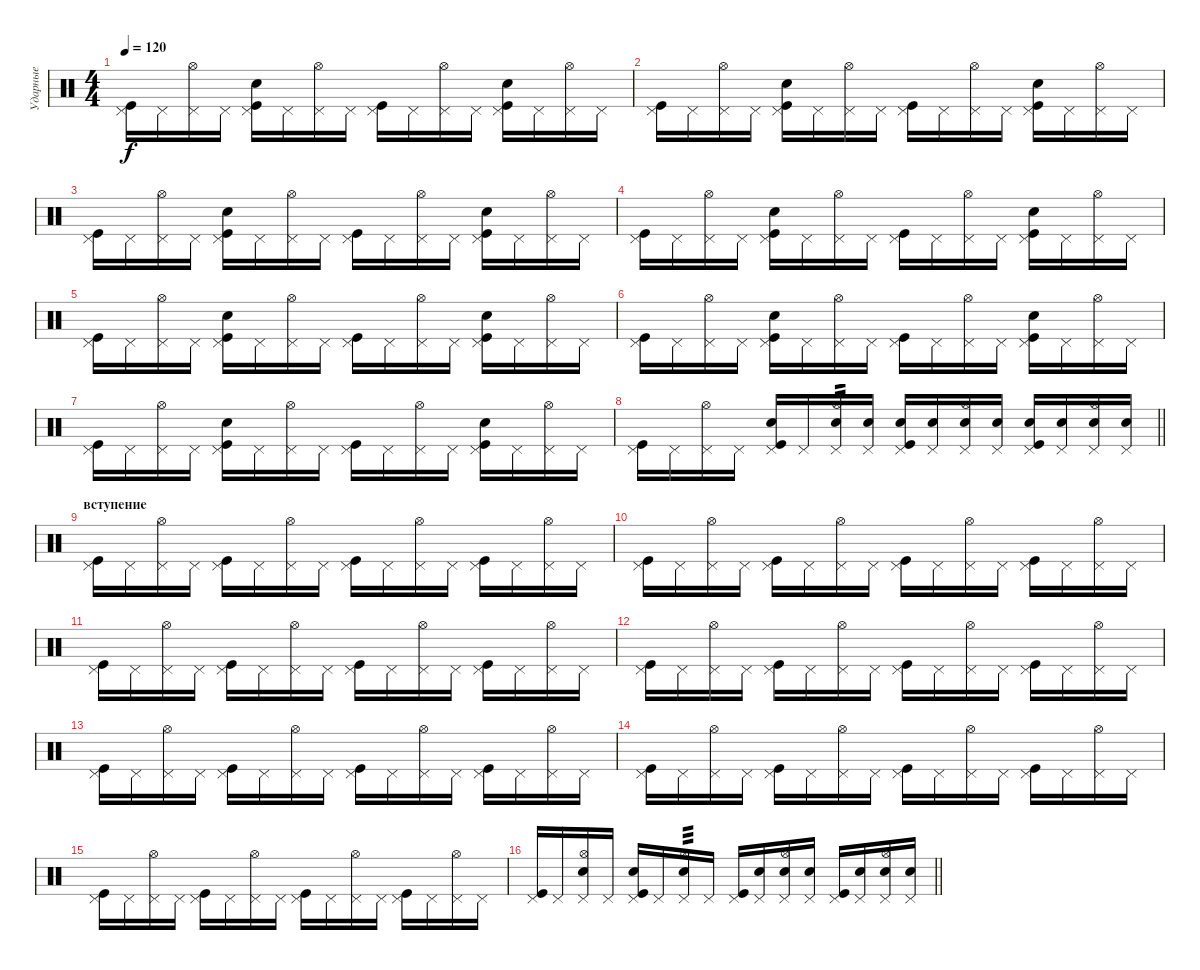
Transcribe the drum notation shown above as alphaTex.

\track ("Ударные" "Ударные") {instrument percussion}
\staff {score}
\articulation defaults
\ts (4 4)
\tempo 120
\clef neutral
\ks c
("Pedal Hi-Hat (hit)" "Kick (hit)").16{dy f} "Pedal Hi-Hat (hit)".16 ("Pedal Hi-Hat (hit)" "Hi-Hat (open)").16 "Pedal Hi-Hat (hit)".16 ("Pedal Hi-Hat (hit)" "Kick (hit)" "Snare (hit) 2").16 "Pedal Hi-Hat (hit)".16 ("Pedal Hi-Hat (hit)" "Hi-Hat (open)").16 "Pedal Hi-Hat (hit)".16 ("Pedal Hi-Hat (hit)" "Kick (hit)").16 "Pedal Hi-Hat (hit)".16 ("Pedal Hi-Hat (hit)" "Hi-Hat (open)").16 "Pedal Hi-Hat (hit)".16 ("Pedal Hi-Hat (hit)" "Kick (hit)" "Snare (hit) 2").16 "Pedal Hi-Hat (hit)".16 ("Pedal Hi-Hat (hit)" "Hi-Hat (open)").16 "Pedal Hi-Hat (hit)".16 |
("Pedal Hi-Hat (hit)" "Kick (hit)").16 "Pedal Hi-Hat (hit)".16 ("Pedal Hi-Hat (hit)" "Hi-Hat (open)").16 "Pedal Hi-Hat (hit)".16 ("Pedal Hi-Hat (hit)" "Kick (hit)" "Snare (hit) 2").16 "Pedal Hi-Hat (hit)".16 ("Pedal Hi-Hat (hit)" "Hi-Hat (open)").16 "Pedal Hi-Hat (hit)".16 ("Pedal Hi-Hat (hit)" "Kick (hit)").16 "Pedal Hi-Hat (hit)".16 ("Pedal Hi-Hat (hit)" "Hi-Hat (open)").16 "Pedal Hi-Hat (hit)".16 ("Pedal Hi-Hat (hit)" "Kick (hit)" "Snare (hit) 2").16 "Pedal Hi-Hat (hit)".16 ("Pedal Hi-Hat (hit)" "Hi-Hat (open)").16 "Pedal Hi-Hat (hit)".16 |
("Pedal Hi-Hat (hit)" "Kick (hit)").16 "Pedal Hi-Hat (hit)".16 ("Pedal Hi-Hat (hit)" "Hi-Hat (open)").16 "Pedal Hi-Hat (hit)".16 ("Pedal Hi-Hat (hit)" "Kick (hit)" "Snare (hit) 2").16 "Pedal Hi-Hat (hit)".16 ("Pedal Hi-Hat (hit)" "Hi-Hat (open)").16 "Pedal Hi-Hat (hit)".16 ("Pedal Hi-Hat (hit)" "Kick (hit)").16 "Pedal Hi-Hat (hit)".16 ("Pedal Hi-Hat (hit)" "Hi-Hat (open)").16 "Pedal Hi-Hat (hit)".16 ("Pedal Hi-Hat (hit)" "Kick (hit)" "Snare (hit) 2").16 "Pedal Hi-Hat (hit)".16 ("Pedal Hi-Hat (hit)" "Hi-Hat (open)").16 "Pedal Hi-Hat (hit)".16 |
("Pedal Hi-Hat (hit)" "Kick (hit)").16 "Pedal Hi-Hat (hit)".16 ("Pedal Hi-Hat (hit)" "Hi-Hat (open)").16 "Pedal Hi-Hat (hit)".16 ("Pedal Hi-Hat (hit)" "Kick (hit)" "Snare (hit) 2").16 "Pedal Hi-Hat (hit)".16 ("Pedal Hi-Hat (hit)" "Hi-Hat (open)").16 "Pedal Hi-Hat (hit)".16 ("Pedal Hi-Hat (hit)" "Kick (hit)").16 "Pedal Hi-Hat (hit)".16 ("Pedal Hi-Hat (hit)" "Hi-Hat (open)").16 "Pedal Hi-Hat (hit)".16 ("Pedal Hi-Hat (hit)" "Kick (hit)" "Snare (hit) 2").16 "Pedal Hi-Hat (hit)".16 ("Pedal Hi-Hat (hit)" "Hi-Hat (open)").16 "Pedal Hi-Hat (hit)".16 |
("Pedal Hi-Hat (hit)" "Kick (hit)").16 "Pedal Hi-Hat (hit)".16 ("Pedal Hi-Hat (hit)" "Hi-Hat (open)").16 "Pedal Hi-Hat (hit)".16 ("Pedal Hi-Hat (hit)" "Kick (hit)" "Snare (hit) 2").16 "Pedal Hi-Hat (hit)".16 ("Pedal Hi-Hat (hit)" "Hi-Hat (open)").16 "Pedal Hi-Hat (hit)".16 ("Pedal Hi-Hat (hit)" "Kick (hit)").16 "Pedal Hi-Hat (hit)".16 ("Pedal Hi-Hat (hit)" "Hi-Hat (open)").16 "Pedal Hi-Hat (hit)".16 ("Pedal Hi-Hat (hit)" "Kick (hit)" "Snare (hit) 2").16 "Pedal Hi-Hat (hit)".16 ("Pedal Hi-Hat (hit)" "Hi-Hat (open)").16 "Pedal Hi-Hat (hit)".16 |
("Pedal Hi-Hat (hit)" "Kick (hit)").16 "Pedal Hi-Hat (hit)".16 ("Pedal Hi-Hat (hit)" "Hi-Hat (open)").16 "Pedal Hi-Hat (hit)".16 ("Pedal Hi-Hat (hit)" "Kick (hit)" "Snare (hit) 2").16 "Pedal Hi-Hat (hit)".16 ("Pedal Hi-Hat (hit)" "Hi-Hat (open)").16 "Pedal Hi-Hat (hit)".16 ("Pedal Hi-Hat (hit)" "Kick (hit)").16 "Pedal Hi-Hat (hit)".16 ("Pedal Hi-Hat (hit)" "Hi-Hat (open)").16 "Pedal Hi-Hat (hit)".16 ("Pedal Hi-Hat (hit)" "Kick (hit)" "Snare (hit) 2").16 "Pedal Hi-Hat (hit)".16 ("Pedal Hi-Hat (hit)" "Hi-Hat (open)").16 "Pedal Hi-Hat (hit)".16 |
("Pedal Hi-Hat (hit)" "Kick (hit)").16 "Pedal Hi-Hat (hit)".16 ("Pedal Hi-Hat (hit)" "Hi-Hat (open)").16 "Pedal Hi-Hat (hit)".16 ("Pedal Hi-Hat (hit)" "Kick (hit)" "Snare (hit) 2").16 "Pedal Hi-Hat (hit)".16 ("Pedal Hi-Hat (hit)" "Hi-Hat (open)").16 "Pedal Hi-Hat (hit)".16 ("Pedal Hi-Hat (hit)" "Kick (hit)").16 "Pedal Hi-Hat (hit)".16 ("Pedal Hi-Hat (hit)" "Hi-Hat (open)").16 "Pedal Hi-Hat (hit)".16 ("Pedal Hi-Hat (hit)" "Kick (hit)" "Snare (hit) 2").16 "Pedal Hi-Hat (hit)".16 ("Pedal Hi-Hat (hit)" "Hi-Hat (open)").16 "Pedal Hi-Hat (hit)".16 |
\barLineRight lightlight
("Pedal Hi-Hat (hit)" "Kick (hit)").16 "Pedal Hi-Hat (hit)".16 ("Pedal Hi-Hat (hit)" "Hi-Hat (open)").16 "Pedal Hi-Hat (hit)".16 ("Pedal Hi-Hat (hit)" "Kick (hit)" "Snare (hit) 2").16 "Pedal Hi-Hat (hit)".16 ("Pedal Hi-Hat (hit)" "Hi-Hat (open)" "Snare (hit) 2").16{tp 3} ("Pedal Hi-Hat (hit)" "Snare (hit) 2").16 ("Pedal Hi-Hat (hit)" "Kick (hit)" "Snare (hit) 2").16 ("Pedal Hi-Hat (hit)" "Snare (hit) 2").16 ("Pedal Hi-Hat (hit)" "Hi-Hat (open)" "Snare (hit) 2").16 ("Pedal Hi-Hat (hit)" "Snare (hit) 2").16 ("Pedal Hi-Hat (hit)" "Kick (hit)" "Snare (hit) 2").16 ("Pedal Hi-Hat (hit)" "Snare (hit) 2").16 ("Pedal Hi-Hat (hit)" "Hi-Hat (open)" "Snare (hit) 2").16 ("Pedal Hi-Hat (hit)" "Snare (hit) 2").16 |
\section ("" "вступение")
("Pedal Hi-Hat (hit)" "Kick (hit)").16 "Pedal Hi-Hat (hit)".16 ("Pedal Hi-Hat (hit)" "Hi-Hat (open)").16 "Pedal Hi-Hat (hit)".16 ("Pedal Hi-Hat (hit)" "Kick (hit)").16 "Pedal Hi-Hat (hit)".16 ("Pedal Hi-Hat (hit)" "Hi-Hat (open)").16 "Pedal Hi-Hat (hit)".16 ("Pedal Hi-Hat (hit)" "Kick (hit)").16 "Pedal Hi-Hat (hit)".16 ("Pedal Hi-Hat (hit)" "Hi-Hat (open)").16 "Pedal Hi-Hat (hit)".16 ("Pedal Hi-Hat (hit)" "Kick (hit)").16 "Pedal Hi-Hat (hit)".16 ("Pedal Hi-Hat (hit)" "Hi-Hat (open)").16 "Pedal Hi-Hat (hit)".16 |
("Pedal Hi-Hat (hit)" "Kick (hit)").16 "Pedal Hi-Hat (hit)".16 ("Pedal Hi-Hat (hit)" "Hi-Hat (open)").16 "Pedal Hi-Hat (hit)".16 ("Pedal Hi-Hat (hit)" "Kick (hit)").16 "Pedal Hi-Hat (hit)".16 ("Pedal Hi-Hat (hit)" "Hi-Hat (open)").16 "Pedal Hi-Hat (hit)".16 ("Pedal Hi-Hat (hit)" "Kick (hit)").16 "Pedal Hi-Hat (hit)".16 ("Pedal Hi-Hat (hit)" "Hi-Hat (open)").16 "Pedal Hi-Hat (hit)".16 ("Pedal Hi-Hat (hit)" "Kick (hit)").16 "Pedal Hi-Hat (hit)".16 ("Pedal Hi-Hat (hit)" "Hi-Hat (open)").16 "Pedal Hi-Hat (hit)".16 |
("Pedal Hi-Hat (hit)" "Kick (hit)").16 "Pedal Hi-Hat (hit)".16 ("Pedal Hi-Hat (hit)" "Hi-Hat (open)").16 "Pedal Hi-Hat (hit)".16 ("Pedal Hi-Hat (hit)" "Kick (hit)").16 "Pedal Hi-Hat (hit)".16 ("Pedal Hi-Hat (hit)" "Hi-Hat (open)").16 "Pedal Hi-Hat (hit)".16 ("Pedal Hi-Hat (hit)" "Kick (hit)").16 "Pedal Hi-Hat (hit)".16 ("Pedal Hi-Hat (hit)" "Hi-Hat (open)").16 "Pedal Hi-Hat (hit)".16 ("Pedal Hi-Hat (hit)" "Kick (hit)").16 "Pedal Hi-Hat (hit)".16 ("Pedal Hi-Hat (hit)" "Hi-Hat (open)").16 "Pedal Hi-Hat (hit)".16 |
("Pedal Hi-Hat (hit)" "Kick (hit)").16 "Pedal Hi-Hat (hit)".16 ("Pedal Hi-Hat (hit)" "Hi-Hat (open)").16 "Pedal Hi-Hat (hit)".16 ("Pedal Hi-Hat (hit)" "Kick (hit)").16 "Pedal Hi-Hat (hit)".16 ("Pedal Hi-Hat (hit)" "Hi-Hat (open)").16 "Pedal Hi-Hat (hit)".16 ("Pedal Hi-Hat (hit)" "Kick (hit)").16 "Pedal Hi-Hat (hit)".16 ("Pedal Hi-Hat (hit)" "Hi-Hat (open)").16 "Pedal Hi-Hat (hit)".16 ("Pedal Hi-Hat (hit)" "Kick (hit)").16 "Pedal Hi-Hat (hit)".16 ("Pedal Hi-Hat (hit)" "Hi-Hat (open)").16 "Pedal Hi-Hat (hit)".16 |
("Pedal Hi-Hat (hit)" "Kick (hit)").16 "Pedal Hi-Hat (hit)".16 ("Pedal Hi-Hat (hit)" "Hi-Hat (open)").16 "Pedal Hi-Hat (hit)".16 ("Pedal Hi-Hat (hit)" "Kick (hit)").16 "Pedal Hi-Hat (hit)".16 ("Pedal Hi-Hat (hit)" "Hi-Hat (open)").16 "Pedal Hi-Hat (hit)".16 ("Pedal Hi-Hat (hit)" "Kick (hit)").16 "Pedal Hi-Hat (hit)".16 ("Pedal Hi-Hat (hit)" "Hi-Hat (open)").16 "Pedal Hi-Hat (hit)".16 ("Pedal Hi-Hat (hit)" "Kick (hit)").16 "Pedal Hi-Hat (hit)".16 ("Pedal Hi-Hat (hit)" "Hi-Hat (open)").16 "Pedal Hi-Hat (hit)".16 |
("Pedal Hi-Hat (hit)" "Kick (hit)").16 "Pedal Hi-Hat (hit)".16 ("Pedal Hi-Hat (hit)" "Hi-Hat (open)").16 "Pedal Hi-Hat (hit)".16 ("Pedal Hi-Hat (hit)" "Kick (hit)").16 "Pedal Hi-Hat (hit)".16 ("Pedal Hi-Hat (hit)" "Hi-Hat (open)").16 "Pedal Hi-Hat (hit)".16 ("Pedal Hi-Hat (hit)" "Kick (hit)").16 "Pedal Hi-Hat (hit)".16 ("Pedal Hi-Hat (hit)" "Hi-Hat (open)").16 "Pedal Hi-Hat (hit)".16 ("Pedal Hi-Hat (hit)" "Kick (hit)").16 "Pedal Hi-Hat (hit)".16 ("Pedal Hi-Hat (hit)" "Hi-Hat (open)").16 "Pedal Hi-Hat (hit)".16 |
("Pedal Hi-Hat (hit)" "Kick (hit)").16 "Pedal Hi-Hat (hit)".16 ("Pedal Hi-Hat (hit)" "Hi-Hat (open)").16 "Pedal Hi-Hat (hit)".16 ("Pedal Hi-Hat (hit)" "Kick (hit)").16 "Pedal Hi-Hat (hit)".16 ("Pedal Hi-Hat (hit)" "Hi-Hat (open)").16 "Pedal Hi-Hat (hit)".16 ("Pedal Hi-Hat (hit)" "Kick (hit)").16 "Pedal Hi-Hat (hit)".16 ("Pedal Hi-Hat (hit)" "Hi-Hat (open)").16 "Pedal Hi-Hat (hit)".16 ("Pedal Hi-Hat (hit)" "Kick (hit)").16 "Pedal Hi-Hat (hit)".16 ("Pedal Hi-Hat (hit)" "Hi-Hat (open)").16 "Pedal Hi-Hat (hit)".16 |
\barLineRight lightlight
("Pedal Hi-Hat (hit)" "Kick (hit)").16 "Pedal Hi-Hat (hit)".16 ("Pedal Hi-Hat (hit)" "Hi-Hat (open)" "Snare (hit) 2").16 "Pedal Hi-Hat (hit)".16 ("Pedal Hi-Hat (hit)" "Kick (hit)" "Snare (hit) 2").16 "Pedal Hi-Hat (hit)".16 ("Pedal Hi-Hat (hit)" "Hi-Hat (open)" "Snare (hit) 2").16{tp 3} "Pedal Hi-Hat (hit)".16 ("Pedal Hi-Hat (hit)" "Kick (hit)").16 ("Pedal Hi-Hat (hit)" "Snare (hit) 2").16 ("Pedal Hi-Hat (hit)" "Hi-Hat (open)" "Snare (hit) 2").16 ("Pedal Hi-Hat (hit)" "Snare (hit) 2").16 ("Pedal Hi-Hat (hit)" "Kick (hit)").16 ("Pedal Hi-Hat (hit)" "Snare (hit) 2").16 ("Pedal Hi-Hat (hit)" "Hi-Hat (open)" "Snare (hit) 2").16 ("Pedal Hi-Hat (hit)" "Snare (hit) 2").16
